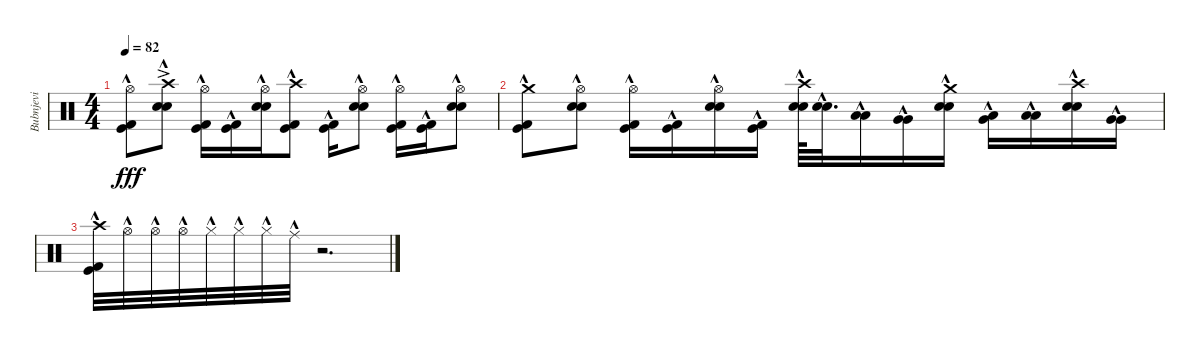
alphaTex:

\track ("Bubnjevi" "Bubnjevi") {instrument percussion}
\staff {score}
\articulation defaults
\ts (4 4)
\tempo 82
\clef neutral
\ks c
("Hi-Hat (open)"{hac} "Kick (hit) 2"{hac} "Kick (hit)"{hac}).8{dy fff} ("Crash high (hit)"{ac} "Snare (hit) 2"{hac} "Electric Snare (hit)"{hac}).8 ("Hi-Hat (open)"{hac} "Kick (hit) 2"{hac} "Kick (hit)"{hac}).16 ("Kick (hit) 2"{hac} "Kick (hit)"{hac}).16 ("Hi-Hat (open)"{hac} "Snare (hit) 2"{hac} "Electric Snare (hit)"{hac}).16 ("Crash high (hit)" "Kick (hit) 2"{hac} "Kick (hit)"{hac}).8 ("Kick (hit) 2"{hac} "Kick (hit)"{hac}).16 ("Hi-Hat (open)"{hac} "Snare (hit) 2"{hac} "Electric Snare (hit)"{hac}).8 ("Hi-Hat (open)"{hac} "Kick (hit) 2"{hac} "Kick (hit)"{hac}).16 ("Kick (hit) 2"{hac} "Kick (hit)"{hac}).16 ("Hi-Hat (open)"{hac} "Snare (hit) 2"{hac} "Electric Snare (hit)"{hac}).8 |
("Crash medium (hit)" "Kick (hit) 2"{hac} "Kick (hit)"{hac}).8 ("Hi-Hat (open)"{hac} "Snare (hit) 2"{hac} "Electric Snare (hit)"{hac}).8 ("Hi-Hat (open)"{hac} "Kick (hit) 2"{hac} "Kick (hit)"{hac}).16 ("Kick (hit) 2"{hac} "Kick (hit)"{hac}).16 ("Hi-Hat (open)"{hac} "Snare (hit) 2"{hac} "Electric Snare (hit)"{hac}).16 ("Kick (hit) 2"{hac} "Kick (hit)"{hac}).16 ("Crash high (hit)" "Snare (hit) 2"{hac} "Electric Snare (hit)"{hac}).64 ("Snare (hit) 2"{hac} "Electric Snare (hit)"{hac}).32{d} ("Low Tom (hit)"{hac} "Low Tom (hit)"{hac}).16 ("Very Low Tom (hit)"{hac} "Very Low Tom (hit)"{hac}).16 ("Crash medium (hit)" "Snare (hit) 2"{hac} "Electric Snare (hit)"{hac}).16 ("Low Floor Tom (hit)"{hac} "Very Low Tom (hit)"{hac}).16 ("Low Tom (hit)"{hac} "Low Tom (hit)"{hac}).16 ("Crash high (hit)" "Snare (hit) 2"{hac} "Electric Snare (hit)"{hac}).16 ("Very Low Tom (hit)"{hac} "Very Low Tom (hit)"{hac}).16 |
("Crash high (hit)" "Kick (hit) 2"{hac} "Kick (hit)"{hac}).32 "Hi-Hat (open)"{hac}.32 "Hi-Hat (open)"{hac}.32 "Hi-Hat (open)"{hac}.32 "Hi-Hat (closed)"{hac}.32 "Hi-Hat (closed)"{hac}.32 "Hi-Hat (closed)"{hac}.32 "Ride (middle)"{hac}.32 r.2{d}
